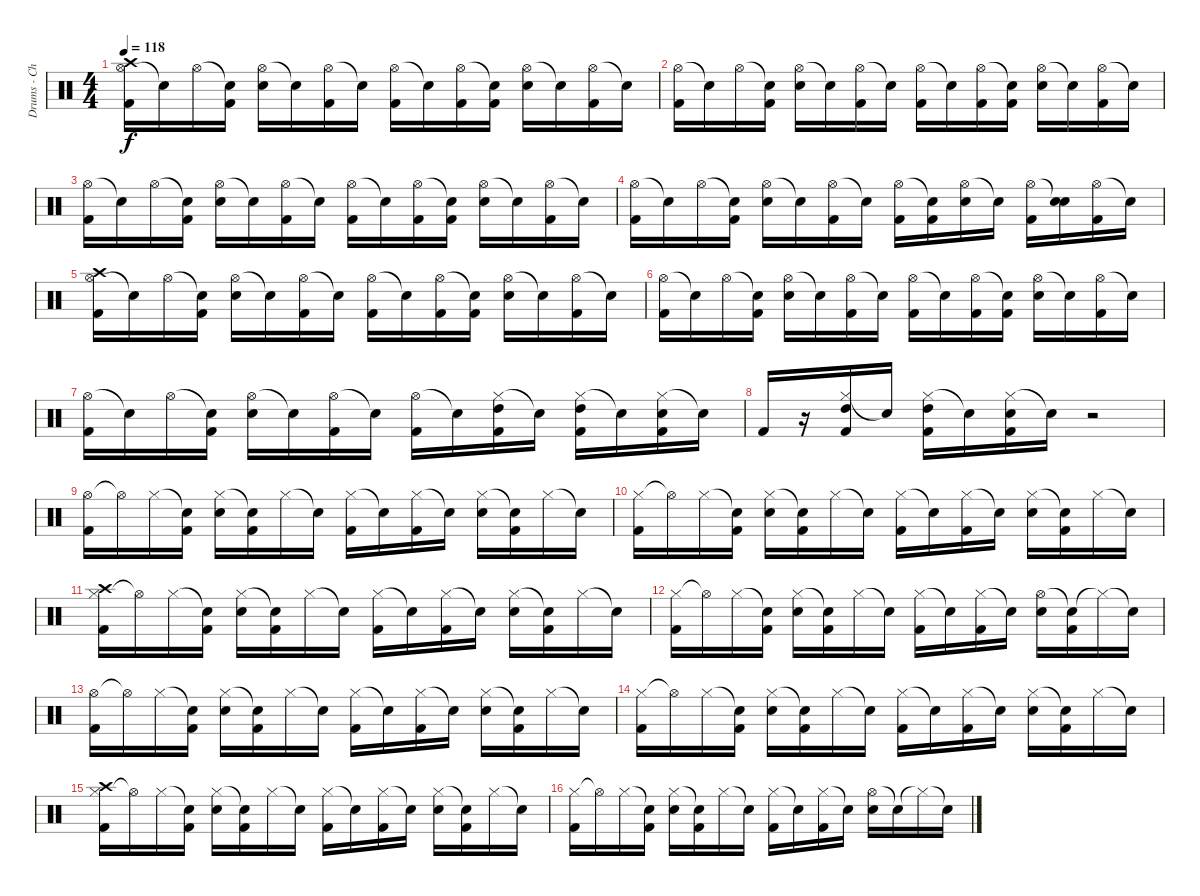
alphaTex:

\track ("Drums - Chad" "Drums - Ch") {instrument percussion}
\staff {score}
\articulation defaults
\ts (4 4)
\tempo 118
\clef neutral
\ks c
("Hi-Hat (open)" "Kick (hit) 2" "Crash high (hit)").16{dy f volume 14} "Snare (hit)"{t}.16 "Hi-Hat (open)".16 ("Snare (hit)"{t} "Kick (hit) 2").16 ("Hi-Hat (open)" "Electric Snare (hit)").16 "Snare (hit)"{t}.16 ("Hi-Hat (open)" "Kick (hit) 2").16 "Snare (hit)"{t}.16 ("Hi-Hat (open)" "Kick (hit) 2").16 "Snare (hit)"{t}.16 ("Hi-Hat (open)" "Kick (hit) 2").16 ("Snare (hit)"{t} "Kick (hit) 2").16 ("Hi-Hat (open)" "Electric Snare (hit)").16 "Snare (hit)"{t}.16 ("Hi-Hat (open)" "Kick (hit) 2").16 "Snare (hit)"{t}.16 |
("Hi-Hat (open)" "Kick (hit) 2").16 "Snare (hit)"{t}.16 "Hi-Hat (open)".16 ("Snare (hit)"{t} "Kick (hit) 2").16 ("Hi-Hat (open)" "Electric Snare (hit)").16 "Snare (hit)"{t}.16 ("Hi-Hat (open)" "Kick (hit) 2").16 "Snare (hit)"{t}.16 ("Hi-Hat (open)" "Kick (hit) 2").16 "Snare (hit)"{t}.16 ("Hi-Hat (open)" "Kick (hit) 2").16 ("Snare (hit)"{t} "Kick (hit) 2").16 ("Hi-Hat (open)" "Electric Snare (hit)").16 "Snare (hit)"{t}.16 ("Hi-Hat (open)" "Kick (hit) 2").16 "Snare (hit)"{t}.16 |
("Hi-Hat (open)" "Kick (hit) 2").16 "Snare (hit)"{t}.16 "Hi-Hat (open)".16 ("Snare (hit)"{t} "Kick (hit) 2").16 ("Hi-Hat (open)" "Electric Snare (hit)").16 "Snare (hit)"{t}.16 ("Hi-Hat (open)" "Kick (hit) 2").16 "Snare (hit)"{t}.16 ("Hi-Hat (open)" "Kick (hit) 2").16 "Snare (hit)"{t}.16 ("Hi-Hat (open)" "Kick (hit) 2").16 ("Snare (hit)"{t} "Kick (hit) 2").16 ("Hi-Hat (open)" "Electric Snare (hit)").16 "Snare (hit)"{t}.16 ("Hi-Hat (open)" "Kick (hit) 2").16 "Snare (hit)"{t}.16 |
("Hi-Hat (open)" "Kick (hit) 2").16 "Snare (hit)"{t}.16 "Hi-Hat (open)".16 ("Snare (hit)"{t} "Kick (hit) 2").16 ("Hi-Hat (open)" "Electric Snare (hit)").16 "Snare (hit)"{t}.16 ("Hi-Hat (open)" "Kick (hit) 2").16 "Snare (hit)"{t}.16 ("Hi-Hat (open)" "Kick (hit) 2").16 ("Snare (hit)"{t} "Kick (hit) 2").16 ("Hi-Hat (open)" "Electric Snare (hit)").16 "Snare (hit)"{t}.16 ("Hi-Hat (open)" "Kick (hit) 2").16 ("Snare (hit)"{t} "Electric Snare (hit)").16 ("Hi-Hat (open)" "Kick (hit) 2").16 "Snare (hit)"{t}.16 |
("Hi-Hat (open)" "Kick (hit) 2" "Crash high (hit)").16{volume 14} "Snare (hit)"{t}.16 "Hi-Hat (open)".16 ("Snare (hit)"{t} "Kick (hit) 2").16 ("Hi-Hat (open)" "Electric Snare (hit)").16 "Snare (hit)"{t}.16 ("Hi-Hat (open)" "Kick (hit) 2").16 "Snare (hit)"{t}.16 ("Hi-Hat (open)" "Kick (hit) 2").16 "Snare (hit)"{t}.16 ("Hi-Hat (open)" "Kick (hit) 2").16 ("Snare (hit)"{t} "Kick (hit) 2").16 ("Hi-Hat (open)" "Electric Snare (hit)").16 "Snare (hit)"{t}.16 ("Hi-Hat (open)" "Kick (hit) 2").16 "Snare (hit)"{t}.16 |
("Hi-Hat (open)" "Kick (hit) 2").16 "Snare (hit)"{t}.16 "Hi-Hat (open)".16 ("Snare (hit)"{t} "Kick (hit) 2").16 ("Hi-Hat (open)" "Electric Snare (hit)").16 "Snare (hit)"{t}.16 ("Hi-Hat (open)" "Kick (hit) 2").16 "Snare (hit)"{t}.16 ("Hi-Hat (open)" "Kick (hit) 2").16 "Snare (hit)"{t}.16 ("Hi-Hat (open)" "Kick (hit) 2").16 ("Snare (hit)"{t} "Kick (hit) 2").16 ("Hi-Hat (open)" "Electric Snare (hit)").16 "Snare (hit)"{t}.16 ("Hi-Hat (open)" "Kick (hit) 2").16 "Snare (hit)"{t}.16 |
("Hi-Hat (open)" "Kick (hit) 2").16 "Snare (hit)"{t}.16 "Hi-Hat (open)".16 ("Snare (hit)"{t} "Kick (hit) 2").16 ("Hi-Hat (open)" "Electric Snare (hit)").16 "Snare (hit)"{t}.16 ("Hi-Hat (open)" "Kick (hit) 2").16 "Snare (hit)"{t}.16 ("Hi-Hat (open)" "Kick (hit) 2").16 "Snare (hit)"{t}.16 ("Hi-Hat (closed)" "Kick (hit) 2" "High Tom (hit)").16 "Snare (hit)"{t}.16 ("Hi-Hat (closed)" "Kick (hit) 2" "High Tom (hit)").16 "Snare (hit)"{t}.16 ("Hi-Hat (closed)" "Kick (hit) 2" "Electric Snare (hit)").16 "Snare (hit)"{t}.16 |
"Kick (hit) 2".16 r.16 ("Hi-Hat (closed)" "Kick (hit) 2" "High Tom (hit)").16 "Snare (hit)"{t}.16 ("Hi-Hat (closed)" "Kick (hit) 2" "High Tom (hit)").16 "Snare (hit)"{t}.16 ("Hi-Hat (closed)" "Kick (hit) 2" "Electric Snare (hit)").16 "Snare (hit)"{t}.16 r.2 |
("Hi-Hat (open)" "Kick (hit) 2").16 "Hi-Hat (open)"{t}.16 "Hi-Hat (closed)".16 ("Snare (hit)"{t} "Kick (hit) 2").16 ("Hi-Hat (closed)" "Electric Snare (hit)").16 ("Snare (hit)"{t} "Kick (hit) 2").16 "Hi-Hat (closed)".16 "Snare (hit)"{t}.16 ("Hi-Hat (closed)" "Kick (hit) 2").16 "Snare (hit)"{t}.16 ("Hi-Hat (closed)" "Kick (hit) 2").16 "Snare (hit)"{t}.16 ("Hi-Hat (closed)" "Electric Snare (hit)").16 ("Snare (hit)"{t} "Kick (hit) 2").16 "Hi-Hat (closed)".16 "Snare (hit)"{t}.16 |
("Hi-Hat (closed)" "Kick (hit) 2").16 "Hi-Hat (open)"{t}.16 "Hi-Hat (closed)".16 ("Snare (hit)"{t} "Kick (hit) 2").16 ("Hi-Hat (closed)" "Electric Snare (hit)").16 ("Snare (hit)"{t} "Kick (hit) 2").16 "Hi-Hat (closed)".16 "Snare (hit)"{t}.16 ("Hi-Hat (closed)" "Kick (hit) 2").16 "Snare (hit)"{t}.16 ("Hi-Hat (closed)" "Kick (hit) 2").16 "Snare (hit)"{t}.16 ("Hi-Hat (closed)" "Electric Snare (hit)").16 ("Snare (hit)"{t} "Kick (hit) 2").16 "Hi-Hat (closed)".16 "Snare (hit)"{t}.16 |
("Hi-Hat (closed)" "Kick (hit) 2" "Crash high (hit)").16 "Hi-Hat (open)"{t}.16 "Hi-Hat (closed)".16 ("Snare (hit)"{t} "Kick (hit) 2").16 ("Hi-Hat (closed)" "Electric Snare (hit)").16 ("Snare (hit)"{t} "Kick (hit) 2").16 "Hi-Hat (closed)".16 "Snare (hit)"{t}.16 ("Hi-Hat (closed)" "Kick (hit) 2").16 "Snare (hit)"{t}.16 ("Hi-Hat (closed)" "Kick (hit) 2").16 "Snare (hit)"{t}.16 ("Hi-Hat (closed)" "Electric Snare (hit)").16 ("Snare (hit)"{t} "Kick (hit) 2").16 "Hi-Hat (closed)".16 "Snare (hit)"{t}.16 |
("Hi-Hat (closed)" "Kick (hit) 2").16 "Hi-Hat (open)"{t}.16 "Hi-Hat (closed)".16 ("Snare (hit)"{t} "Kick (hit) 2").16 ("Hi-Hat (closed)" "Electric Snare (hit)").16 ("Snare (hit)"{t} "Kick (hit) 2").16 "Hi-Hat (closed)".16 "Snare (hit)"{t}.16 ("Hi-Hat (closed)" "Kick (hit) 2").16 "Snare (hit)"{t}.16 ("Hi-Hat (closed)" "Kick (hit) 2").16 "Snare (hit)"{t}.16 ("Hi-Hat (open)" "Electric Snare (hit)").16 ("Snare (hit)"{t} "Kick (hit) 2").16 "Hi-Hat (closed)"{t}.16 "Snare (hit)"{t}.16 |
("Hi-Hat (open)" "Kick (hit) 2").16 "Hi-Hat (open)"{t}.16 "Hi-Hat (closed)".16 ("Snare (hit)"{t} "Kick (hit) 2").16 ("Hi-Hat (closed)" "Electric Snare (hit)").16 ("Snare (hit)"{t} "Kick (hit) 2").16 "Hi-Hat (closed)".16 "Snare (hit)"{t}.16 ("Hi-Hat (closed)" "Kick (hit) 2").16 "Snare (hit)"{t}.16 ("Hi-Hat (closed)" "Kick (hit) 2").16 "Snare (hit)"{t}.16 ("Hi-Hat (closed)" "Electric Snare (hit)").16 ("Snare (hit)"{t} "Kick (hit) 2").16 "Hi-Hat (closed)".16 "Snare (hit)"{t}.16 |
("Hi-Hat (closed)" "Kick (hit) 2").16 "Hi-Hat (open)"{t}.16 "Hi-Hat (closed)".16 ("Snare (hit)"{t} "Kick (hit) 2").16 ("Hi-Hat (closed)" "Electric Snare (hit)").16 ("Snare (hit)"{t} "Kick (hit) 2").16 "Hi-Hat (closed)".16 "Snare (hit)"{t}.16 ("Hi-Hat (closed)" "Kick (hit) 2").16 "Snare (hit)"{t}.16 ("Hi-Hat (closed)" "Kick (hit) 2").16 "Snare (hit)"{t}.16 ("Hi-Hat (closed)" "Electric Snare (hit)").16 ("Snare (hit)"{t} "Kick (hit) 2").16 "Hi-Hat (closed)".16 "Snare (hit)"{t}.16 |
("Hi-Hat (closed)" "Kick (hit) 2" "Crash high (hit)").16 "Hi-Hat (open)"{t}.16 "Hi-Hat (closed)".16 ("Snare (hit)"{t} "Kick (hit) 2").16 ("Hi-Hat (closed)" "Electric Snare (hit)").16 ("Snare (hit)"{t} "Kick (hit) 2").16 "Hi-Hat (closed)".16 "Snare (hit)"{t}.16 ("Hi-Hat (closed)" "Kick (hit) 2").16 "Snare (hit)"{t}.16 ("Hi-Hat (closed)" "Kick (hit) 2").16 "Snare (hit)"{t}.16 ("Hi-Hat (closed)" "Electric Snare (hit)").16 ("Snare (hit)"{t} "Kick (hit) 2").16 "Hi-Hat (closed)".16 "Snare (hit)"{t}.16 |
("Hi-Hat (closed)" "Kick (hit) 2").16 "Hi-Hat (open)"{t}.16 "Hi-Hat (closed)".16 ("Snare (hit)"{t} "Kick (hit) 2").16 ("Hi-Hat (closed)" "Electric Snare (hit)").16 ("Snare (hit)"{t} "Kick (hit) 2").16 "Hi-Hat (closed)".16 "Snare (hit)"{t}.16 ("Hi-Hat (closed)" "Kick (hit) 2").16 "Snare (hit)"{t}.16 ("Hi-Hat (closed)" "Kick (hit) 2").16 "Snare (hit)"{t}.16 ("Hi-Hat (open)" "Electric Snare (hit)").16 "Snare (hit)"{t}.16 "Hi-Hat (closed)"{t}.16 "Snare (hit)"{t}.16
